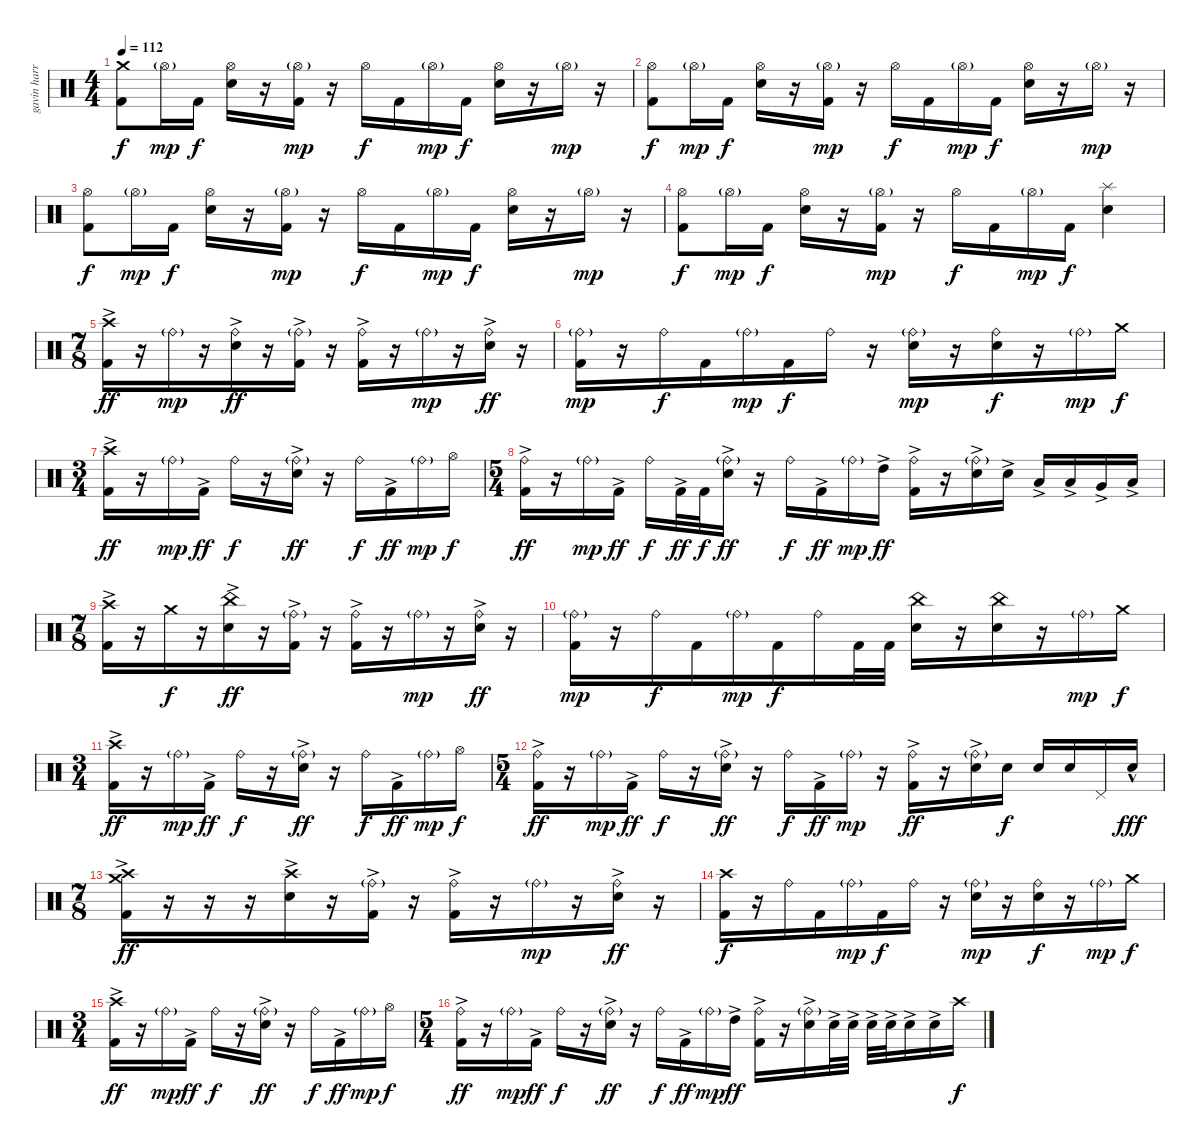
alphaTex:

\track ("gavin harrison" "gavin harr") {instrument percussion}
\staff {score}
\articulation defaults
\ts (4 4)
\tempo 112
\clef neutral
\ks c
("Crash medium (hit)" "Kick (hit) 2").8{dy f} "Hi-Hat (open)"{g}.16{dy mp} "Kick (hit) 2".16{dy f} ("Hi-Hat (open)" "Electric Snare (hit)").16 r.16 ("Hi-Hat (open)"{g} "Kick (hit) 2").16{dy mp} r.16 "Hi-Hat (open)".16{dy f} "Kick (hit) 2".16 "Hi-Hat (open)"{g}.16{dy mp} "Kick (hit) 2".16{dy f} ("Hi-Hat (open)" "Electric Snare (hit)").16 r.16 "Hi-Hat (open)"{g}.16{dy mp} r.16 |
("Hi-Hat (open)" "Kick (hit) 2").8{dy f} "Hi-Hat (open)"{g}.16{dy mp} "Kick (hit) 2".16{dy f} ("Hi-Hat (open)" "Electric Snare (hit)").16 r.16 ("Hi-Hat (open)"{g} "Kick (hit) 2").16{dy mp} r.16 "Hi-Hat (open)".16{dy f} "Kick (hit) 2".16 "Hi-Hat (open)"{g}.16{dy mp} "Kick (hit) 2".16{dy f} ("Hi-Hat (open)" "Electric Snare (hit)").16 r.16 "Hi-Hat (open)"{g}.16{dy mp} r.16 |
("Hi-Hat (open)" "Kick (hit) 2").8{dy f} "Hi-Hat (open)"{g}.16{dy mp} "Kick (hit) 2".16{dy f} ("Hi-Hat (open)" "Electric Snare (hit)").16 r.16 ("Hi-Hat (open)"{g} "Kick (hit) 2").16{dy mp} r.16 "Hi-Hat (open)".16{dy f} "Kick (hit) 2".16 "Hi-Hat (open)"{g}.16{dy mp} "Kick (hit) 2".16{dy f} ("Hi-Hat (open)" "Electric Snare (hit)").16 r.16 "Hi-Hat (open)"{g}.16{dy mp} r.16 |
("Hi-Hat (open)" "Kick (hit) 2").8{dy f} "Hi-Hat (open)"{g}.16{dy mp} "Kick (hit) 2".16{dy f} ("Hi-Hat (open)" "Electric Snare (hit)").16 r.16 ("Hi-Hat (open)"{g} "Kick (hit) 2").16{dy mp} r.16 "Hi-Hat (open)".16{dy f} "Kick (hit) 2".16 "Hi-Hat (open)"{g}.16{dy mp} "Kick (hit) 2".16{dy f} ("Splash (hit)" "Electric Snare (hit)").4 |
\ts (7 8)
("Crash high (hit)" "Kick (hit) 2"{ac}).16{dy ff} r.16 "Ride (bell)"{g}.16{dy mp} r.16 ("Ride (bell)" "Electric Snare (hit)"{ac}).16{dy ff} r.16 ("Ride (bell)"{g} "Kick (hit) 2"{ac}).16 r.16 ("Ride (bell)" "Kick (hit) 2"{ac}).16 r.16 "Ride (bell)"{g}.16{dy mp} r.16 ("Ride (bell)" "Electric Snare (hit)"{ac}).16{dy ff} r.16 |
("Ride (bell)"{g} "Kick (hit) 2").16{dy mp} r.16 "Ride (bell)".16{dy f} "Kick (hit) 2".16 "Ride (bell)"{g}.16{dy mp} "Kick (hit) 2".16{dy f} "Ride (bell)".16 r.16 ("Ride (bell)"{g} "Electric Snare (hit)").16{dy mp} r.16 ("Ride (bell)" "Electric Snare (hit)").16{dy f} r.16 "Ride (bell)"{g}.16{dy mp} "Crash medium (hit)".16{dy f} |
\ts (3 4)
("Crash high (hit)" "Kick (hit) 2"{ac}).16{dy ff} r.16 "Ride (bell)"{g}.16{dy mp} "Kick (hit) 2"{ac}.16{dy ff} "Ride (bell)".16{dy f} r.16 ("Ride (bell)"{g} "Electric Snare (hit)"{ac}).16{dy ff} r.16 "Ride (bell)".16{dy f} "Kick (hit) 2"{ac}.16{dy ff} "Ride (bell)"{g}.16{dy mp} "Hi-Hat (open)".16{dy f} |
\ts (5 4)
("Ride (bell)" "Kick (hit) 2"{ac}).16{dy ff} r.16 "Ride (bell)"{g}.16{dy mp} "Kick (hit) 2"{ac}.16{dy ff} "Ride (bell)".16{dy f} "Kick (hit) 2"{ac}.32{dy ff} "Kick (hit) 2".32{dy f} ("Ride (bell)"{g} "Electric Snare (hit)"{ac}).16{dy ff} r.16 "Ride (bell)".16{dy f} "Kick (hit) 2"{ac}.16{dy ff} "Ride (bell)"{g}.16{dy mp} "High Tom (hit)"{ac}.16{dy ff} ("Ride (bell)" "Kick (hit) 2"{ac}).16 r.16 ("Ride (bell)"{g} "Electric Snare (hit)"{ac}).16 "Electric Snare (hit)"{ac}.16 "Low Tom (hit)"{ac}.16 "Low Tom (hit)"{ac}.16 "Very Low Tom (hit)"{ac}.16 "Low Floor Tom (hit)"{ac}.16 |
\ts (7 8)
("Crash high (hit)" "Kick (hit) 2"{ac}).16 r.16 "Crash medium (hit)".16{dy f} r.16 ("China (hit)" "Electric Snare (hit)"{ac}).16{dy ff} r.16 ("Ride (bell)"{g} "Kick (hit) 2"{ac}).16 r.16 ("Ride (bell)" "Kick (hit) 2"{ac}).16 r.16 "Ride (bell)"{g}.16{dy mp} r.16 ("Ride (bell)" "Electric Snare (hit)"{ac}).16{dy ff} r.16 |
("Ride (bell)"{g} "Kick (hit) 2").16{dy mp} r.16 "Ride (bell)".16{dy f} "Kick (hit) 2".16 "Ride (bell)"{g}.16{dy mp} "Kick (hit) 2".16{dy f} "Ride (bell)".16 "Kick (hit) 2".32 "Kick (hit) 2".32 ("China (hit)" "Electric Snare (hit)").16 r.16 ("China (hit)" "Electric Snare (hit)").16 r.16 "Ride (bell)"{g}.16{dy mp} "Crash medium (hit)".16{dy f} |
\ts (3 4)
("Crash high (hit)" "Kick (hit) 2"{ac}).16{dy ff} r.16 "Ride (bell)"{g}.16{dy mp} "Kick (hit) 2"{ac}.16{dy ff} "Ride (bell)".16{dy f} r.16 ("Ride (bell)"{g} "Electric Snare (hit)"{ac}).16{dy ff} r.16 "Ride (bell)".16{dy f} "Kick (hit) 2"{ac}.16{dy ff} "Ride (bell)"{g}.16{dy mp} "Hi-Hat (open)".16{dy f} |
\ts (5 4)
("Ride (bell)" "Kick (hit) 2"{ac}).16{dy ff} r.16 "Ride (bell)"{g}.16{dy mp} "Kick (hit) 2"{ac}.16{dy ff} "Ride (bell)".16{dy f} r.16 ("Ride (bell)"{g} "Electric Snare (hit)"{ac}).16{dy ff} r.16 "Ride (bell)".16{dy f} "Kick (hit) 2"{ac}.16{dy ff} "Ride (bell)"{g}.16{dy mp} r.16 ("Ride (bell)" "Kick (hit) 2"{ac}).16{dy ff} r.16 ("Ride (bell)"{g} "Electric Snare (hit)"{ac}).16 "Electric Snare (hit)".16{dy f} "Electric Snare (hit)".16 "Electric Snare (hit)".16 "Pedal Hi-Hat (hit)".16 "Electric Snare (hit)"{hac}.16{dy fff} |
\ts (7 8)
("Crash high (hit)" "Crash medium (hit)" "Kick (hit) 2"{ac}).16{dy ff} r.16 r.16 r.16 ("Crash high (hit)" "Electric Snare (hit)"{ac}).16 r.16 ("Ride (bell)"{g} "Kick (hit) 2"{ac}).16 r.16 ("Ride (bell)" "Kick (hit) 2"{ac}).16 r.16 "Ride (bell)"{g}.16{dy mp} r.16 ("Ride (bell)" "Electric Snare (hit)"{ac}).16{dy ff} r.16 |
("Crash high (hit)" "Kick (hit) 2").16{dy f} r.16 "Ride (bell)".16 "Kick (hit) 2".16 "Ride (bell)"{g}.16{dy mp} "Kick (hit) 2".16{dy f} "Ride (bell)".16 r.16 ("Ride (bell)"{g} "Electric Snare (hit)").16{dy mp} r.16 ("Ride (bell)" "Electric Snare (hit)").16{dy f} r.16 "Ride (bell)"{g}.16{dy mp} "Crash medium (hit)".16{dy f} |
\ts (3 4)
("Crash high (hit)" "Kick (hit) 2"{ac}).16{dy ff} r.16 "Ride (bell)"{g}.16{dy mp} "Kick (hit) 2"{ac}.16{dy ff} "Ride (bell)".16{dy f} r.16 ("Ride (bell)"{g} "Electric Snare (hit)"{ac}).16{dy ff} r.16 "Ride (bell)".16{dy f} "Kick (hit) 2"{ac}.16{dy ff} "Ride (bell)"{g}.16{dy mp} "Hi-Hat (open)".16{dy f} |
\ts (5 4)
("Ride (bell)" "Kick (hit) 2"{ac}).16{dy ff} r.16 "Ride (bell)"{g}.16{dy mp} "Kick (hit) 2"{ac}.16{dy ff} "Ride (bell)".16{dy f} r.16 ("Ride (bell)"{g} "Electric Snare (hit)"{ac}).16{dy ff} r.16 "Ride (bell)".16{dy f} "Kick (hit) 2"{ac}.16{dy ff} "Ride (bell)"{g}.16{dy mp} "High Tom (hit)"{ac}.16{dy ff} ("Ride (bell)" "Kick (hit) 2"{ac}).16 r.16 ("Ride (bell)"{g} "Electric Snare (hit)"{ac}).16 "Electric Snare (hit)"{ac}.32 "Electric Snare (hit)"{ac}.32 "Electric Snare (hit)"{ac}.32 "Electric Snare (hit)"{ac}.32 "Electric Snare (hit)"{ac}.16 "Electric Snare (hit)"{ac}.16 "Crash high (hit)".16{dy f}
